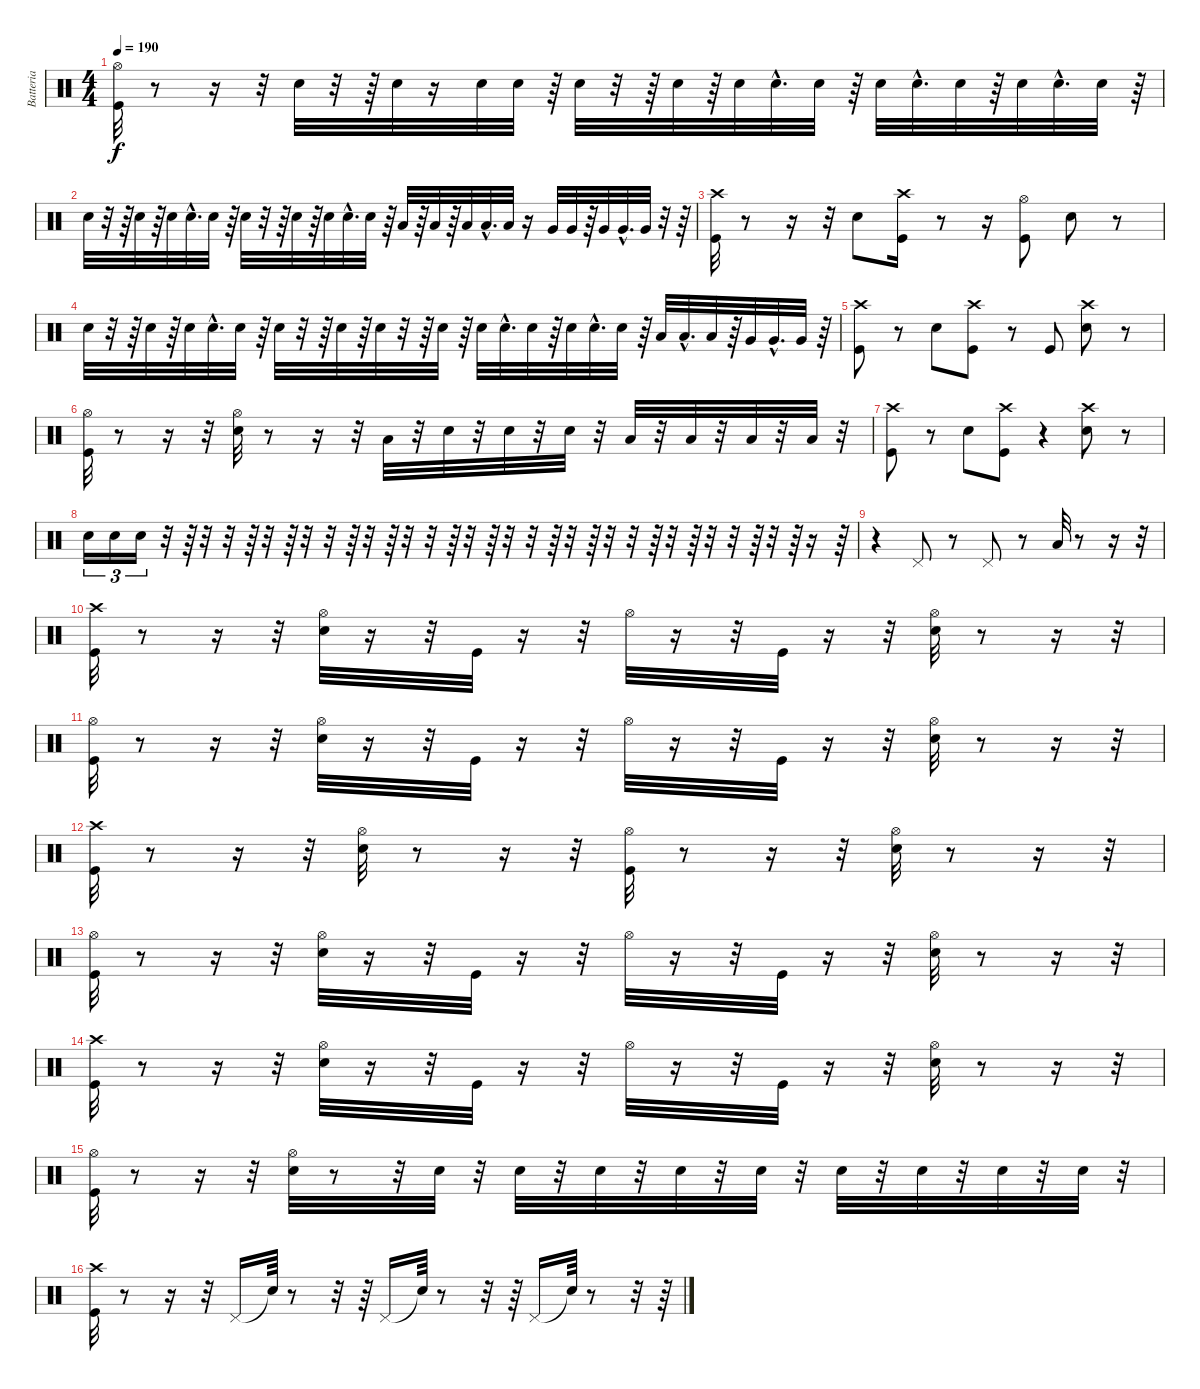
\track ("Batteria" "Batteria") {instrument percussion}
\staff {score}
\articulation defaults
\ts (4 4)
\tempo 190
\clef neutral
\ks c
("Hi-Hat (open)" "Kick (hit)").32{dy f} r.8 r.16 r.32 "Snare (hit) 2".32 r.32 r.64 "Snare (hit) 2".32 r.16 "Snare (hit) 2".32 "Snare (hit) 2".32 r.64 "Snare (hit) 2".32 r.32 r.64 "Snare (hit) 2".32 r.64 "Snare (hit) 2".32 "Snare (hit) 2"{hac}.32{d} "Snare (hit) 2".32 r.64 "Snare (hit) 2".32 "Snare (hit) 2"{hac}.32{d} "Snare (hit) 2".32 r.64 "Snare (hit) 2".32 "Snare (hit) 2"{hac}.32{d} "Snare (hit) 2".32 r.64 |
"Snare (hit) 2".32 r.32 r.64 "Snare (hit) 2".32 r.64 "Snare (hit) 2".32 "Snare (hit) 2"{hac}.32{d} "Snare (hit) 2".32 r.64 "Snare (hit) 2".32 r.32 r.64 "Snare (hit) 2".32 r.64 "Snare (hit) 2".32 "Snare (hit) 2"{hac}.32{d} "Snare (hit) 2".32 r.64 "Low Tom (hit)".32 r.64 "Low Tom (hit)".32 r.64 "Low Tom (hit)".32 "Low Tom (hit)"{hac}.32{d} "Low Tom (hit)".32 r.16 "Very Low Tom (hit)".32 "Very Low Tom (hit)".32 r.64 "Very Low Tom (hit)".32 "Very Low Tom (hit)"{hac}.32{d} "Very Low Tom (hit)".32 r.32 r.64 |
("Crash high (hit)" "Kick (hit)").32 r.8 r.16 r.32 "Snare (hit) 2".8 ("Crash high (hit)" "Kick (hit)").16 r.8 r.16 ("Hi-Hat (open)" "Kick (hit)").8 "Snare (hit) 2".8 r.8 |
"Snare (hit) 2".32 r.32 r.64 "Snare (hit) 2".32 r.64 "Snare (hit) 2".32 "Snare (hit) 2"{hac}.32{d} "Snare (hit) 2".32 r.64 "Snare (hit) 2".32 r.32 r.64 "Snare (hit) 2".32 r.64 "Snare (hit) 2".32 r.32 r.64 "Snare (hit) 2".32 r.64 "Snare (hit) 2".32 "Snare (hit) 2"{hac}.32{d} "Snare (hit) 2".32 r.64 "Snare (hit) 2".32 "Snare (hit) 2"{hac}.32{d} "Snare (hit) 2".32 r.64 "Low Tom (hit)".32 "Low Tom (hit)"{hac}.32{d} "Low Tom (hit)".32 r.64 "Very Low Tom (hit)".32 "Very Low Tom (hit)"{hac}.32{d} "Very Low Tom (hit)".32 r.64 |
("Crash high (hit)" "Kick (hit)").8 r.8 "Snare (hit) 2".8 ("Kick (hit)" "Crash high (hit)").8 r.8 "Kick (hit)".8 ("Crash high (hit)" "Snare (hit) 2").8 r.8 |
("Hi-Hat (open)" "Kick (hit)").32 r.8 r.16 r.32 ("Hi-Hat (open)" "Snare (hit) 2").32 r.8 r.16 r.32 "Low Tom (hit)".32 r.32 "Snare (hit) 2".32 r.32 "Snare (hit) 2".32 r.32 "Snare (hit) 2".32 r.32 "Low Tom (hit)".32 r.32 "Low Tom (hit)".32 r.32 "Low Tom (hit)".32 r.32 "Low Tom (hit)".32 r.32 |
("Crash high (hit)" "Kick (hit)").8 r.8 "Snare (hit) 2".8 ("Crash high (hit)" "Kick (hit)").8 r.4 ("Crash high (hit)" "Snare (hit) 2").8 r.8 |
"Snare (hit) 2".16{tu (3 2)} "Snare (hit) 2".16{tu (3 2)} "Snare (hit) 2".16{tu (3 2)} r.32 r.64 r.32 r.32 r.64 r.32 r.64 r.32 r.32 r.64 r.32 r.64 r.32 r.32 r.64 r.32 r.64 r.32 r.32 r.64 r.32 r.64 r.32 r.32 r.64 r.32 r.64 r.32 r.32 r.64 r.32 r.64 r.16 r.64 |
r.4 "Pedal Hi-Hat (hit)".8 r.8 "Pedal Hi-Hat (hit)".8 r.8 "Low Tom (hit)".32 r.8 r.16 r.32 |
("Crash high (hit)" "Kick (hit)").32 r.8 r.16 r.32 ("Hi-Hat (open)" "Snare (hit) 2").32 r.16 r.32 "Kick (hit)".32 r.16 r.32 "Hi-Hat (open)".32 r.16 r.32 "Kick (hit)".32 r.16 r.32 ("Hi-Hat (open)" "Snare (hit) 2").32 r.8 r.16 r.32 |
("Kick (hit)" "Hi-Hat (open)").32 r.8 r.16 r.32 ("Snare (hit) 2" "Hi-Hat (open)").32 r.16 r.32 "Kick (hit)".32 r.16 r.32 "Hi-Hat (open)".32 r.16 r.32 "Kick (hit)".32 r.16 r.32 ("Snare (hit) 2" "Hi-Hat (open)").32 r.8 r.16 r.32 |
("Kick (hit)" "Crash high (hit)").32 r.8 r.16 r.32 ("Snare (hit) 2" "Hi-Hat (open)").32 r.8 r.16 r.32 ("Kick (hit)" "Hi-Hat (open)").32 r.8 r.16 r.32 ("Hi-Hat (open)" "Snare (hit) 2").32 r.8 r.16 r.32 |
("Kick (hit)" "Hi-Hat (open)").32 r.8 r.16 r.32 ("Hi-Hat (open)" "Snare (hit) 2").32 r.16 r.32 "Kick (hit)".32 r.16 r.32 "Hi-Hat (open)".32 r.16 r.32 "Kick (hit)".32 r.16 r.32 ("Hi-Hat (open)" "Snare (hit) 2").32 r.8 r.16 r.32 |
("Crash high (hit)" "Kick (hit)").32 r.8 r.16 r.32 ("Hi-Hat (open)" "Snare (hit) 2").32 r.16 r.32 "Kick (hit)".32 r.16 r.32 "Hi-Hat (open)".32 r.16 r.32 "Kick (hit)".32 r.16 r.32 ("Hi-Hat (open)" "Snare (hit) 2").32 r.8 r.16 r.32 |
("Hi-Hat (open)" "Kick (hit)").32 r.8 r.16 r.32 ("Snare (hit) 2" "Hi-Hat (open)").32 r.8 r.32 "Snare (hit) 2".32 r.32 "Snare (hit) 2".32 r.32 "Snare (hit) 2".32 r.32 "Snare (hit) 2".32 r.32 "Snare (hit) 2".32 r.32 "Snare (hit) 2".32 r.32 "Snare (hit) 2".32 r.32 "Snare (hit) 2".32 r.32 "Snare (hit) 2".32 r.32 |
("Kick (hit)" "Crash high (hit)").32 r.8 r.16 r.32 "Pedal Hi-Hat (hit)".16 "Snare (hit)"{t}.64 r.8 r.32 r.64 "Pedal Hi-Hat (hit)".16 "Snare (hit)"{t}.64 r.8 r.32 r.64 "Pedal Hi-Hat (hit)".16 "Snare (hit)"{t}.64 r.8 r.32 r.64
